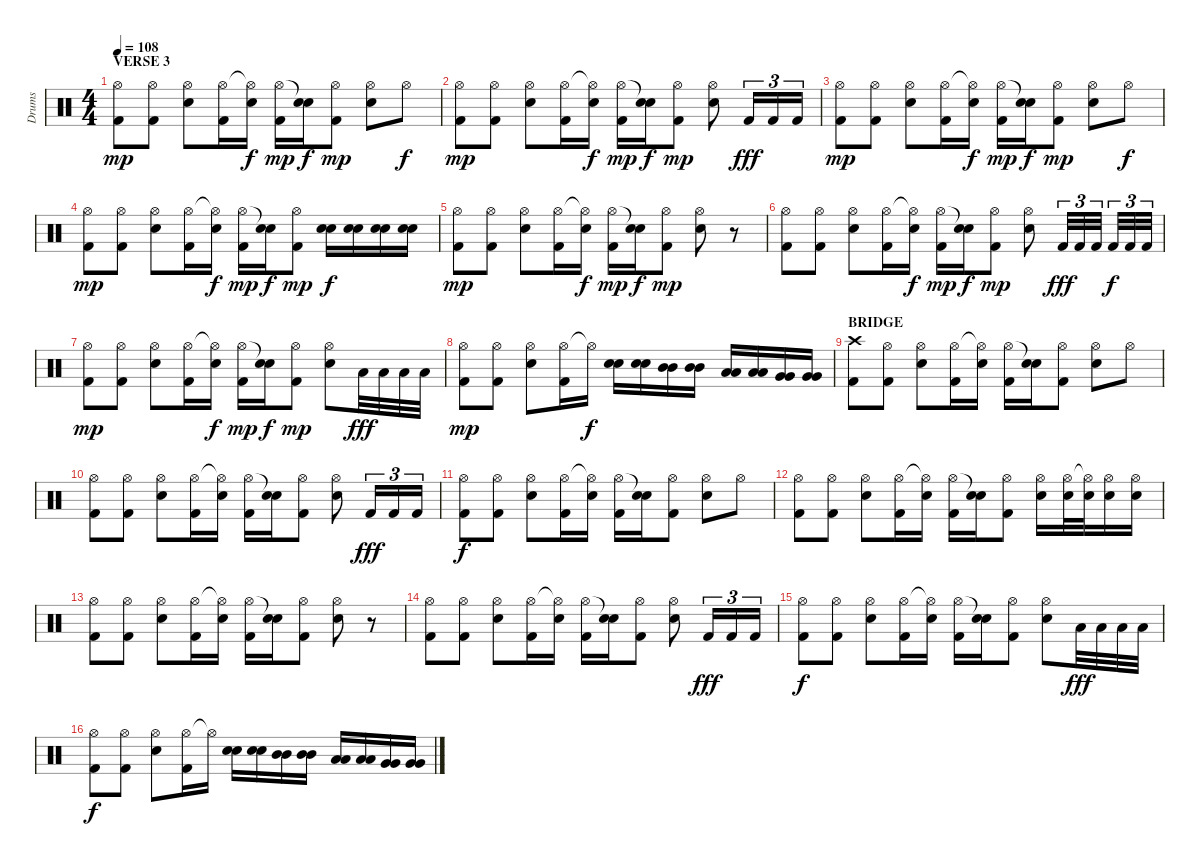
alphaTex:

\track ("Drums" "Drums") {instrument percussion}
\staff {score}
\articulation defaults
\ts (4 4)
\section ("" "VERSE 3")
\tempo 108
\clef neutral
\ks c
("Hi-Hat (open)" "Kick (hit) 2").8{dy mp} ("Hi-Hat (open)" "Kick (hit) 2").8 ("Hi-Hat (open)" "Electric Snare (hit)").8 ("Hi-Hat (open)" "Kick (hit) 2").16 ("Hi-Hat (open)"{t} "Electric Snare (hit)").16{dy f} ("Hi-Hat (open)" "Kick (hit) 2").16{dy mp} ("Snare (hit)"{t} "Electric Snare (hit)").16{dy f} ("Hi-Hat (open)" "Kick (hit) 2").8{dy mp} ("Hi-Hat (open)" "Electric Snare (hit)").8 "Hi-Hat (open)".8{dy f} |
("Hi-Hat (open)" "Kick (hit) 2").8{dy mp} ("Hi-Hat (open)" "Kick (hit) 2").8 ("Hi-Hat (open)" "Electric Snare (hit)").8 ("Hi-Hat (open)" "Kick (hit) 2").16 ("Hi-Hat (open)"{t} "Electric Snare (hit)").16{dy f} ("Hi-Hat (open)" "Kick (hit) 2").16{dy mp} ("Snare (hit)"{t} "Electric Snare (hit)").16{dy f} ("Hi-Hat (open)" "Kick (hit) 2").8{dy mp} ("Hi-Hat (open)" "Electric Snare (hit)").8 "Kick (hit) 2".16{tu (3 2) dy fff} "Kick (hit) 2".16{tu (3 2)} "Kick (hit) 2".16{tu (3 2)} |
("Hi-Hat (open)" "Kick (hit) 2").8{dy mp} ("Hi-Hat (open)" "Kick (hit) 2").8 ("Hi-Hat (open)" "Electric Snare (hit)").8 ("Hi-Hat (open)" "Kick (hit) 2").16 ("Hi-Hat (open)"{t} "Electric Snare (hit)").16{dy f} ("Hi-Hat (open)" "Kick (hit) 2").16{dy mp} ("Snare (hit)"{t} "Electric Snare (hit)").16{dy f} ("Hi-Hat (open)" "Kick (hit) 2").8{dy mp} ("Hi-Hat (open)" "Electric Snare (hit)").8 "Hi-Hat (open)".8{dy f} |
("Hi-Hat (open)" "Kick (hit) 2").8{dy mp} ("Hi-Hat (open)" "Kick (hit) 2").8 ("Hi-Hat (open)" "Electric Snare (hit)").8 ("Hi-Hat (open)" "Kick (hit) 2").16 ("Hi-Hat (open)"{t} "Electric Snare (hit)").16{dy f} ("Hi-Hat (open)" "Kick (hit) 2").16{dy mp} ("Snare (hit)"{t} "Electric Snare (hit)").16{dy f} ("Hi-Hat (open)" "Kick (hit) 2").8{dy mp} ("Electric Snare (hit)" "Electric Snare (hit)").16{dy f} ("Electric Snare (hit)" "Electric Snare (hit)").16 ("Electric Snare (hit)" "Electric Snare (hit)").16 ("Electric Snare (hit)" "Electric Snare (hit)").16 |
("Hi-Hat (open)" "Kick (hit) 2").8{dy mp} ("Hi-Hat (open)" "Kick (hit) 2").8 ("Hi-Hat (open)" "Electric Snare (hit)").8 ("Hi-Hat (open)" "Kick (hit) 2").16 ("Hi-Hat (open)"{t} "Electric Snare (hit)").16{dy f} ("Hi-Hat (open)" "Kick (hit) 2").16{dy mp} ("Snare (hit)"{t} "Electric Snare (hit)").16{dy f} ("Hi-Hat (open)" "Kick (hit) 2").8{dy mp} ("Hi-Hat (open)" "Electric Snare (hit)").8 r.8 |
("Hi-Hat (open)" "Kick (hit) 2").8 ("Hi-Hat (open)" "Kick (hit) 2").8 ("Hi-Hat (open)" "Electric Snare (hit)").8 ("Hi-Hat (open)" "Kick (hit) 2").16 ("Hi-Hat (open)"{t} "Electric Snare (hit)").16{dy f} ("Hi-Hat (open)" "Kick (hit) 2").16{dy mp} ("Snare (hit)"{t} "Electric Snare (hit)").16{dy f} ("Hi-Hat (open)" "Kick (hit) 2").8{dy mp} ("Hi-Hat (open)" "Electric Snare (hit)").8 "Kick (hit) 2".32{tu (3 2) dy fff} "Kick (hit) 2".32{tu (3 2)} "Kick (hit) 2".32{tu (3 2)} "Kick (hit) 2".32{tu (3 2) dy f} "Kick (hit) 2".32{tu (3 2)} "Kick (hit) 2".32{tu (3 2)} |
("Hi-Hat (open)" "Kick (hit) 2").8{dy mp} ("Hi-Hat (open)" "Kick (hit) 2").8 ("Hi-Hat (open)" "Electric Snare (hit)").8 ("Hi-Hat (open)" "Kick (hit) 2").16 ("Hi-Hat (open)"{t} "Electric Snare (hit)").16{dy f} ("Hi-Hat (open)" "Kick (hit) 2").16{dy mp} ("Snare (hit)"{t} "Electric Snare (hit)").16{dy f} ("Hi-Hat (open)" "Kick (hit) 2").8{dy mp} ("Hi-Hat (open)" "Electric Snare (hit)").8 "Low Floor Tom (hit)".32{dy fff} "Low Floor Tom (hit)".32 "Low Floor Tom (hit)".32 "Low Floor Tom (hit)".32 |
("Hi-Hat (open)" "Kick (hit) 2").8{dy mp} ("Hi-Hat (open)" "Kick (hit) 2").8 ("Hi-Hat (open)" "Electric Snare (hit)").8 ("Hi-Hat (open)" "Kick (hit) 2").16 "Hi-Hat (open)"{t}.16{dy f} ("Electric Snare (hit)" "Electric Snare (hit)").16 ("Electric Snare (hit)" "Electric Snare (hit)").16 ("Mid Tom (hit)" "Mid Tom (hit)").16 ("Mid Tom (hit)" "Mid Tom (hit)").16 ("Low Tom (hit)" "Low Tom (hit)").16 ("Low Tom (hit)" "Low Tom (hit)").16 ("Very Low Tom (hit)" "Very Low Tom (hit)").16 ("Very Low Tom (hit)" "Very Low Tom (hit)").16 |
\section ("" "BRIDGE")
("Crash high (hit)" "Kick (hit) 2").8 ("Hi-Hat (open)" "Kick (hit) 2").8 ("Hi-Hat (open)" "Electric Snare (hit)").8 ("Hi-Hat (open)" "Kick (hit) 2").16 ("Hi-Hat (open)"{t} "Electric Snare (hit)").16 ("Hi-Hat (open)" "Kick (hit) 2").16 ("Snare (hit)"{t} "Electric Snare (hit)").16 ("Hi-Hat (open)" "Kick (hit) 2").8 ("Hi-Hat (open)" "Electric Snare (hit)").8 "Hi-Hat (open)".8 |
("Hi-Hat (open)" "Kick (hit) 2").8 ("Hi-Hat (open)" "Kick (hit) 2").8 ("Hi-Hat (open)" "Electric Snare (hit)").8 ("Hi-Hat (open)" "Kick (hit) 2").16 ("Hi-Hat (open)"{t} "Electric Snare (hit)").16 ("Hi-Hat (open)" "Kick (hit) 2").16 ("Snare (hit)"{t} "Electric Snare (hit)").16 ("Hi-Hat (open)" "Kick (hit) 2").8 ("Hi-Hat (open)" "Electric Snare (hit)").8 "Kick (hit) 2".16{tu (3 2) dy fff} "Kick (hit) 2".16{tu (3 2)} "Kick (hit) 2".16{tu (3 2)} |
("Hi-Hat (open)" "Kick (hit) 2").8{dy f} ("Hi-Hat (open)" "Kick (hit) 2").8 ("Hi-Hat (open)" "Electric Snare (hit)").8 ("Hi-Hat (open)" "Kick (hit) 2").16 ("Hi-Hat (open)"{t} "Electric Snare (hit)").16 ("Hi-Hat (open)" "Kick (hit) 2").16 ("Snare (hit)"{t} "Electric Snare (hit)").16 ("Hi-Hat (open)" "Kick (hit) 2").8 ("Hi-Hat (open)" "Electric Snare (hit)").8 "Hi-Hat (open)".8 |
("Hi-Hat (open)" "Kick (hit) 2").8 ("Hi-Hat (open)" "Kick (hit) 2").8 ("Hi-Hat (open)" "Electric Snare (hit)").8 ("Hi-Hat (open)" "Kick (hit) 2").16 ("Hi-Hat (open)"{t} "Electric Snare (hit)").16 ("Hi-Hat (open)" "Kick (hit) 2").16 ("Snare (hit)"{t} "Electric Snare (hit)").16 ("Hi-Hat (open)" "Kick (hit) 2").8 ("Hi-Hat (open)" "Electric Snare (hit)").16 ("Hi-Hat (open)" "Electric Snare (hit)").32 ("Hi-Hat (open)"{t} "Electric Snare (hit)").32 ("Hi-Hat (open)" "Electric Snare (hit)").16 ("Hi-Hat (open)" "Electric Snare (hit)").16 |
("Hi-Hat (open)" "Kick (hit) 2").8 ("Hi-Hat (open)" "Kick (hit) 2").8 ("Hi-Hat (open)" "Electric Snare (hit)").8 ("Hi-Hat (open)" "Kick (hit) 2").16 ("Hi-Hat (open)"{t} "Electric Snare (hit)").16 ("Hi-Hat (open)" "Kick (hit) 2").16 ("Snare (hit)"{t} "Electric Snare (hit)").16 ("Hi-Hat (open)" "Kick (hit) 2").8 ("Hi-Hat (open)" "Electric Snare (hit)").8 r.8 |
("Hi-Hat (open)" "Kick (hit) 2").8 ("Hi-Hat (open)" "Kick (hit) 2").8 ("Hi-Hat (open)" "Electric Snare (hit)").8 ("Hi-Hat (open)" "Kick (hit) 2").16 ("Hi-Hat (open)"{t} "Electric Snare (hit)").16 ("Hi-Hat (open)" "Kick (hit) 2").16 ("Snare (hit)"{t} "Electric Snare (hit)").16 ("Hi-Hat (open)" "Kick (hit) 2").8 ("Hi-Hat (open)" "Electric Snare (hit)").8 "Kick (hit) 2".16{tu (3 2) dy fff} "Kick (hit) 2".16{tu (3 2)} "Kick (hit) 2".16{tu (3 2)} |
("Hi-Hat (open)" "Kick (hit) 2").8{dy f} ("Hi-Hat (open)" "Kick (hit) 2").8 ("Hi-Hat (open)" "Electric Snare (hit)").8 ("Hi-Hat (open)" "Kick (hit) 2").16 ("Hi-Hat (open)"{t} "Electric Snare (hit)").16 ("Hi-Hat (open)" "Kick (hit) 2").16 ("Snare (hit)"{t} "Electric Snare (hit)").16 ("Hi-Hat (open)" "Kick (hit) 2").8 ("Hi-Hat (open)" "Electric Snare (hit)").8 "Low Floor Tom (hit)".32{dy fff} "Low Floor Tom (hit)".32 "Low Floor Tom (hit)".32 "Low Floor Tom (hit)".32 |
("Hi-Hat (open)" "Kick (hit) 2").8{dy f} ("Hi-Hat (open)" "Kick (hit) 2").8 ("Hi-Hat (open)" "Electric Snare (hit)").8 ("Hi-Hat (open)" "Kick (hit) 2").16 "Hi-Hat (open)"{t}.16 ("Electric Snare (hit)" "Electric Snare (hit)").16 ("Electric Snare (hit)" "Electric Snare (hit)").16 ("Mid Tom (hit)" "Mid Tom (hit)").16 ("Mid Tom (hit)" "Mid Tom (hit)").16 ("Low Tom (hit)" "Low Tom (hit)").16 ("Low Tom (hit)" "Low Tom (hit)").16 ("Very Low Tom (hit)" "Very Low Tom (hit)").16 ("Very Low Tom (hit)" "Very Low Tom (hit)").16
